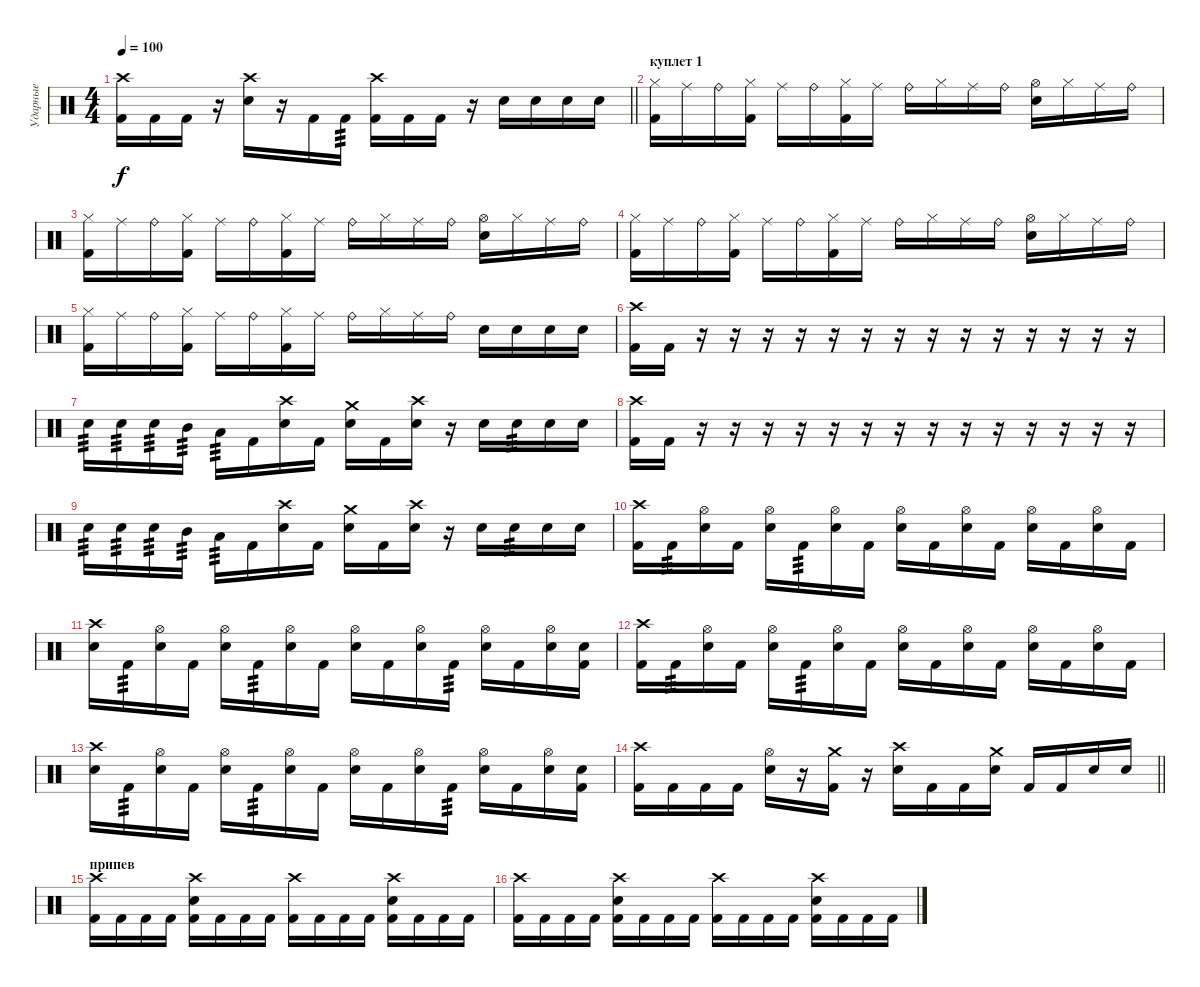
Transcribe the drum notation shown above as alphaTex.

\track ("Ударные" "Ударные") {instrument percussion}
\staff {score}
\articulation defaults
\ts (4 4)
\tempo 100
\clef neutral
\barLineRight lightlight
\ks c
("Crash high (hit)" "Kick (hit) 2").16{dy f} "Kick (hit) 2".16 "Kick (hit) 2".16 r.16 ("Crash high (hit)" "Electric Snare (hit)").16 r.16 "Kick (hit) 2".16 "Kick (hit) 2".16{tp 3} ("Crash high (hit)" "Kick (hit) 2").16 "Kick (hit) 2".16 "Kick (hit) 2".16 r.16 "Electric Snare (hit)".16 "Electric Snare (hit)".16 "Electric Snare (hit)".16 "Electric Snare (hit)".16 |
\section ("" "куплет 1")
("Hi-Hat (closed)" "Kick (hit) 2").16 "Ride (middle)".16 "Ride (bell)".16 ("Hi-Hat (closed)" "Kick (hit) 2").16 "Ride (middle)".16 "Ride (bell)".16 ("Hi-Hat (closed)" "Kick (hit) 2").16 "Ride (middle)".16 "Ride (bell)".16 "Hi-Hat (closed)".16 "Ride (middle)".16 "Ride (bell)".16 ("Hi-Hat (open)" "Electric Snare (hit)").16 "Hi-Hat (closed)".16 "Ride (middle)".16 "Ride (bell)".16 |
("Hi-Hat (closed)" "Kick (hit) 2").16 "Ride (middle)".16 "Ride (bell)".16 ("Hi-Hat (closed)" "Kick (hit) 2").16 "Ride (middle)".16 "Ride (bell)".16 ("Hi-Hat (closed)" "Kick (hit) 2").16 "Ride (middle)".16 "Ride (bell)".16 "Hi-Hat (closed)".16 "Ride (middle)".16 "Ride (bell)".16 ("Hi-Hat (open)" "Electric Snare (hit)").16 "Hi-Hat (closed)".16 "Ride (middle)".16 "Ride (bell)".16 |
("Hi-Hat (closed)" "Kick (hit) 2").16 "Ride (middle)".16 "Ride (bell)".16 ("Hi-Hat (closed)" "Kick (hit) 2").16 "Ride (middle)".16 "Ride (bell)".16 ("Hi-Hat (closed)" "Kick (hit) 2").16 "Ride (middle)".16 "Ride (bell)".16 "Hi-Hat (closed)".16 "Ride (middle)".16 "Ride (bell)".16 ("Hi-Hat (open)" "Electric Snare (hit)").16 "Hi-Hat (closed)".16 "Ride (middle)".16 "Ride (bell)".16 |
("Hi-Hat (closed)" "Kick (hit) 2").16 "Ride (middle)".16 "Ride (bell)".16 ("Hi-Hat (closed)" "Kick (hit) 2").16 "Ride (middle)".16 "Ride (bell)".16 ("Hi-Hat (closed)" "Kick (hit) 2").16 "Ride (middle)".16 "Ride (bell)".16 "Hi-Hat (closed)".16 "Ride (middle)".16 "Ride (bell)".16 "Electric Snare (hit)".16 "Electric Snare (hit)".16 "Electric Snare (hit)".16 "Electric Snare (hit)".16 |
("Crash high (hit)" "Kick (hit) 2").16 "Kick (hit) 2".16 r.16 r.16 r.16 r.16 r.16 r.16 r.16 r.16 r.16 r.16 r.16 r.16 r.16 r.16 |
"Electric Snare (hit)".16{tp 3} "Electric Snare (hit)".16{tp 3} "Electric Snare (hit)".16{tp 3} "Mid Tom (hit)".16{tp 3} "Low Tom (hit)".16{tp 3} "Kick (hit) 2".16 ("Crash high (hit)" "Electric Snare (hit)").16 "Kick (hit) 2".16 ("Crash medium (hit)" "Electric Snare (hit)").16 "Kick (hit) 2".16 ("Crash high (hit)" "Electric Snare (hit)").16 r.16 "Electric Snare (hit)".16 "Electric Snare (hit)".16{tp 3} "Electric Snare (hit)".16 "Electric Snare (hit)".16 |
("Crash high (hit)" "Kick (hit) 2").16 "Kick (hit) 2".16 r.16 r.16 r.16 r.16 r.16 r.16 r.16 r.16 r.16 r.16 r.16 r.16 r.16 r.16 |
"Electric Snare (hit)".16{tp 3} "Electric Snare (hit)".16{tp 3} "Electric Snare (hit)".16{tp 3} "Mid Tom (hit)".16{tp 3} "Low Tom (hit)".16{tp 3} "Kick (hit) 2".16 ("Crash high (hit)" "Electric Snare (hit)").16 "Kick (hit) 2".16 ("Crash medium (hit)" "Electric Snare (hit)").16 "Kick (hit) 2".16 ("Crash high (hit)" "Electric Snare (hit)").16 r.16 "Electric Snare (hit)".16 "Electric Snare (hit)".16{tp 3} "Electric Snare (hit)".16 "Electric Snare (hit)".16 |
("Crash high (hit)" "Kick (hit) 2").16 "Kick (hit) 2".16{tp 3} ("Hi-Hat (open)" "Electric Snare (hit)").16 "Kick (hit) 2".16 ("Hi-Hat (open)" "Electric Snare (hit)").16 "Kick (hit) 2".16{tp 3} ("Hi-Hat (open)" "Electric Snare (hit)").16 "Kick (hit) 2".16 ("Hi-Hat (open)" "Electric Snare (hit)").16 "Kick (hit) 2".16 ("Hi-Hat (open)" "Electric Snare (hit)").16 "Kick (hit) 2".16 ("Hi-Hat (open)" "Electric Snare (hit)").16 "Kick (hit) 2".16 ("Hi-Hat (open)" "Electric Snare (hit)").16 "Kick (hit) 2".16 |
("Crash high (hit)" "Electric Snare (hit)").16 "Kick (hit) 2".16{tp 3} ("Hi-Hat (open)" "Electric Snare (hit)").16 "Kick (hit) 2".16 ("Hi-Hat (open)" "Electric Snare (hit)").16 "Kick (hit) 2".16{tp 3} ("Hi-Hat (open)" "Electric Snare (hit)").16 "Kick (hit) 2".16 ("Hi-Hat (open)" "Electric Snare (hit)").16 "Kick (hit) 2".16 ("Hi-Hat (open)" "Electric Snare (hit)").16 "Kick (hit) 2".16{tp 3} ("Hi-Hat (open)" "Electric Snare (hit)").16 "Kick (hit) 2".16 ("Hi-Hat (open)" "Electric Snare (hit)").16 ("Electric Snare (hit)" "Kick (hit) 2").16 |
("Crash high (hit)" "Kick (hit) 2").16 "Kick (hit) 2".16{tp 3} ("Hi-Hat (open)" "Electric Snare (hit)").16 "Kick (hit) 2".16 ("Hi-Hat (open)" "Electric Snare (hit)").16 "Kick (hit) 2".16{tp 3} ("Hi-Hat (open)" "Electric Snare (hit)").16 "Kick (hit) 2".16 ("Hi-Hat (open)" "Electric Snare (hit)").16 "Kick (hit) 2".16 ("Hi-Hat (open)" "Electric Snare (hit)").16 "Kick (hit) 2".16 ("Hi-Hat (open)" "Electric Snare (hit)").16 "Kick (hit) 2".16 ("Hi-Hat (open)" "Electric Snare (hit)").16 "Kick (hit) 2".16 |
("Crash high (hit)" "Electric Snare (hit)").16 "Kick (hit) 2".16{tp 3} ("Hi-Hat (open)" "Electric Snare (hit)").16 "Kick (hit) 2".16 ("Hi-Hat (open)" "Electric Snare (hit)").16 "Kick (hit) 2".16{tp 3} ("Hi-Hat (open)" "Electric Snare (hit)").16 "Kick (hit) 2".16 ("Hi-Hat (open)" "Electric Snare (hit)").16 "Kick (hit) 2".16 ("Hi-Hat (open)" "Electric Snare (hit)").16 "Kick (hit) 2".16{tp 3} ("Hi-Hat (open)" "Electric Snare (hit)").16 "Kick (hit) 2".16 ("Hi-Hat (open)" "Electric Snare (hit)").16 ("Electric Snare (hit)" "Kick (hit) 2").16 |
\barLineRight lightlight
("Crash high (hit)" "Kick (hit) 2").16 "Kick (hit) 2".16 "Kick (hit) 2".16 "Kick (hit) 2".16 ("Hi-Hat (open)" "Electric Snare (hit)").16 r.16 ("Crash medium (hit)" "Kick (hit) 2").16 r.16 ("Crash high (hit)" "Electric Snare (hit)").16 "Kick (hit) 2".16 "Kick (hit) 2".16 ("Crash medium (hit)" "Electric Snare (hit)").16 "Kick (hit) 2".16 "Kick (hit) 2".16 "Electric Snare (hit)".16 "Electric Snare (hit)".16 |
\section ("" "припев")
("Crash high (hit)" "Kick (hit) 2").16 "Kick (hit) 2".16 "Kick (hit) 2".16 "Kick (hit) 2".16 ("Crash high (hit)" "Electric Snare (hit)" "Kick (hit) 2").16 "Kick (hit) 2".16 "Kick (hit) 2".16 "Kick (hit) 2".16 ("Crash high (hit)" "Kick (hit) 2").16 "Kick (hit) 2".16 "Kick (hit) 2".16 "Kick (hit) 2".16 ("Crash high (hit)" "Electric Snare (hit)" "Kick (hit) 2").16 "Kick (hit) 2".16 "Kick (hit) 2".16 "Kick (hit) 2".16 |
("Crash high (hit)" "Kick (hit) 2").16 "Kick (hit) 2".16 "Kick (hit) 2".16 "Kick (hit) 2".16 ("Crash high (hit)" "Electric Snare (hit)" "Kick (hit) 2").16 "Kick (hit) 2".16 "Kick (hit) 2".16 "Kick (hit) 2".16 ("Crash high (hit)" "Kick (hit) 2").16 "Kick (hit) 2".16 "Kick (hit) 2".16 "Kick (hit) 2".16 ("Crash high (hit)" "Electric Snare (hit)" "Kick (hit) 2").16 "Kick (hit) 2".16 "Kick (hit) 2".16 "Kick (hit) 2".16
